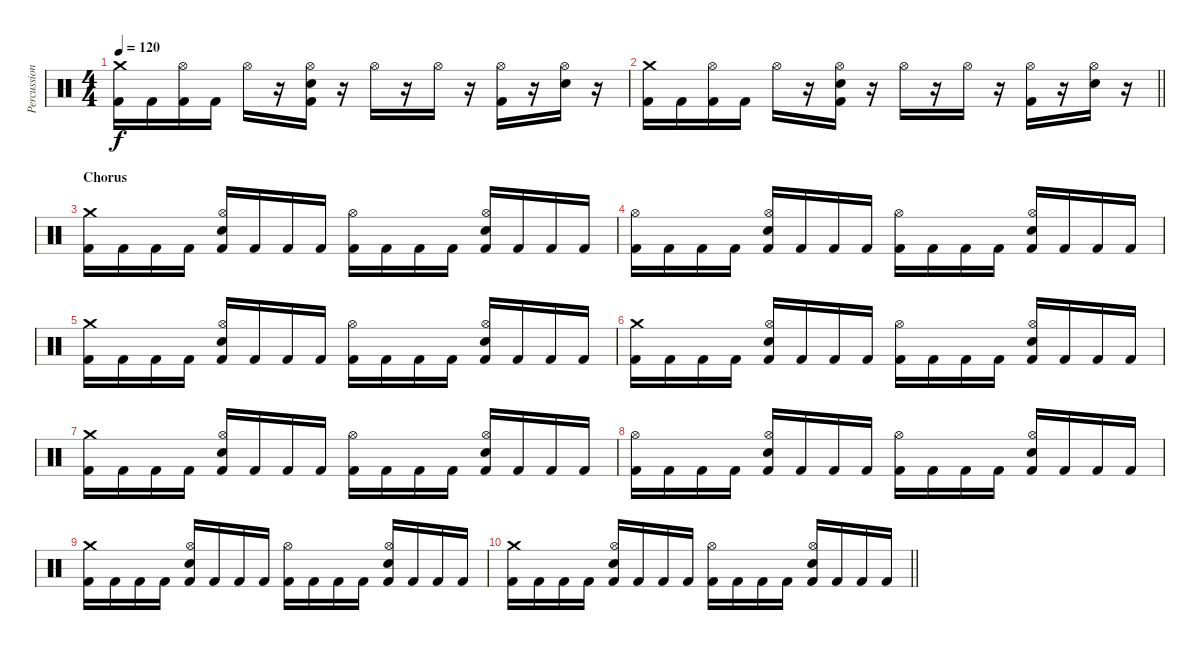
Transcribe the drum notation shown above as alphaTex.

\track ("Percussion" "Percussion") {instrument percussion}
\staff {score}
\articulation defaults
\ts (4 4)
\tempo 120
\clef neutral
\ks c
("Crash medium (hit)" "Kick (hit) 2").16{dy f} "Kick (hit) 2".16 ("Hi-Hat (open)" "Kick (hit) 2").16 "Kick (hit) 2".16 "Hi-Hat (open)".16 r.16 ("Hi-Hat (open)" "Electric Snare (hit)" "Kick (hit) 2").16 r.16 "Hi-Hat (open)".16 r.16 "Hi-Hat (open)".16 r.16 ("Hi-Hat (open)" "Kick (hit) 2").16 r.16 ("Hi-Hat (open)" "Electric Snare (hit)").16 r.16 |
\barLineRight lightlight
("Crash medium (hit)" "Kick (hit) 2").16 "Kick (hit) 2".16 ("Hi-Hat (open)" "Kick (hit) 2").16 "Kick (hit) 2".16 "Hi-Hat (open)".16 r.16 ("Hi-Hat (open)" "Electric Snare (hit)" "Kick (hit) 2").16 r.16 "Hi-Hat (open)".16 r.16 "Hi-Hat (open)".16 r.16 ("Hi-Hat (open)" "Kick (hit) 2").16 r.16 ("Hi-Hat (open)" "Electric Snare (hit)").16 r.16 |
\section ("" "Chorus")
("Crash medium (hit)" "Kick (hit) 2").16 "Kick (hit) 2".16 "Kick (hit) 2".16 "Kick (hit) 2".16 ("Hi-Hat (open)" "Electric Snare (hit)" "Kick (hit) 2").16 "Kick (hit) 2".16 "Kick (hit) 2".16 "Kick (hit) 2".16 ("Hi-Hat (open)" "Kick (hit) 2").16 "Kick (hit) 2".16 "Kick (hit) 2".16 "Kick (hit) 2".16 ("Hi-Hat (open)" "Electric Snare (hit)" "Kick (hit) 2").16 "Kick (hit) 2".16 "Kick (hit) 2".16 "Kick (hit) 2".16 |
("Hi-Hat (open)" "Kick (hit) 2").16 "Kick (hit) 2".16 "Kick (hit) 2".16 "Kick (hit) 2".16 ("Hi-Hat (open)" "Electric Snare (hit)" "Kick (hit) 2").16 "Kick (hit) 2".16 "Kick (hit) 2".16 "Kick (hit) 2".16 ("Hi-Hat (open)" "Kick (hit) 2").16 "Kick (hit) 2".16 "Kick (hit) 2".16 "Kick (hit) 2".16 ("Hi-Hat (open)" "Electric Snare (hit)" "Kick (hit) 2").16 "Kick (hit) 2".16 "Kick (hit) 2".16 "Kick (hit) 2".16 |
("Crash medium (hit)" "Kick (hit) 2").16 "Kick (hit) 2".16 "Kick (hit) 2".16 "Kick (hit) 2".16 ("Hi-Hat (open)" "Electric Snare (hit)" "Kick (hit) 2").16 "Kick (hit) 2".16 "Kick (hit) 2".16 "Kick (hit) 2".16 ("Hi-Hat (open)" "Kick (hit) 2").16 "Kick (hit) 2".16 "Kick (hit) 2".16 "Kick (hit) 2".16 ("Hi-Hat (open)" "Electric Snare (hit)" "Kick (hit) 2").16 "Kick (hit) 2".16 "Kick (hit) 2".16 "Kick (hit) 2".16 |
("Crash medium (hit)" "Kick (hit) 2").16 "Kick (hit) 2".16 "Kick (hit) 2".16 "Kick (hit) 2".16 ("Hi-Hat (open)" "Electric Snare (hit)" "Kick (hit) 2").16 "Kick (hit) 2".16 "Kick (hit) 2".16 "Kick (hit) 2".16 ("Hi-Hat (open)" "Kick (hit) 2").16 "Kick (hit) 2".16 "Kick (hit) 2".16 "Kick (hit) 2".16 ("Hi-Hat (open)" "Electric Snare (hit)" "Kick (hit) 2").16 "Kick (hit) 2".16 "Kick (hit) 2".16 "Kick (hit) 2".16 |
("Crash medium (hit)" "Kick (hit) 2").16 "Kick (hit) 2".16 "Kick (hit) 2".16 "Kick (hit) 2".16 ("Hi-Hat (open)" "Electric Snare (hit)" "Kick (hit) 2").16 "Kick (hit) 2".16 "Kick (hit) 2".16 "Kick (hit) 2".16 ("Hi-Hat (open)" "Kick (hit) 2").16 "Kick (hit) 2".16 "Kick (hit) 2".16 "Kick (hit) 2".16 ("Hi-Hat (open)" "Electric Snare (hit)" "Kick (hit) 2").16 "Kick (hit) 2".16 "Kick (hit) 2".16 "Kick (hit) 2".16 |
("Hi-Hat (open)" "Kick (hit) 2").16 "Kick (hit) 2".16 "Kick (hit) 2".16 "Kick (hit) 2".16 ("Hi-Hat (open)" "Electric Snare (hit)" "Kick (hit) 2").16 "Kick (hit) 2".16 "Kick (hit) 2".16 "Kick (hit) 2".16 ("Hi-Hat (open)" "Kick (hit) 2").16 "Kick (hit) 2".16 "Kick (hit) 2".16 "Kick (hit) 2".16 ("Hi-Hat (open)" "Electric Snare (hit)" "Kick (hit) 2").16 "Kick (hit) 2".16 "Kick (hit) 2".16 "Kick (hit) 2".16 |
("Crash medium (hit)" "Kick (hit) 2").16 "Kick (hit) 2".16 "Kick (hit) 2".16 "Kick (hit) 2".16 ("Hi-Hat (open)" "Electric Snare (hit)" "Kick (hit) 2").16 "Kick (hit) 2".16 "Kick (hit) 2".16 "Kick (hit) 2".16 ("Hi-Hat (open)" "Kick (hit) 2").16 "Kick (hit) 2".16 "Kick (hit) 2".16 "Kick (hit) 2".16 ("Hi-Hat (open)" "Electric Snare (hit)" "Kick (hit) 2").16 "Kick (hit) 2".16 "Kick (hit) 2".16 "Kick (hit) 2".16 |
\barLineRight lightlight
("Crash medium (hit)" "Kick (hit) 2").16 "Kick (hit) 2".16 "Kick (hit) 2".16 "Kick (hit) 2".16 ("Hi-Hat (open)" "Electric Snare (hit)" "Kick (hit) 2").16 "Kick (hit) 2".16 "Kick (hit) 2".16 "Kick (hit) 2".16 ("Hi-Hat (open)" "Kick (hit) 2").16 "Kick (hit) 2".16 "Kick (hit) 2".16 "Kick (hit) 2".16 ("Hi-Hat (open)" "Electric Snare (hit)" "Kick (hit) 2").16 "Kick (hit) 2".16 "Kick (hit) 2".16 "Kick (hit) 2".16
